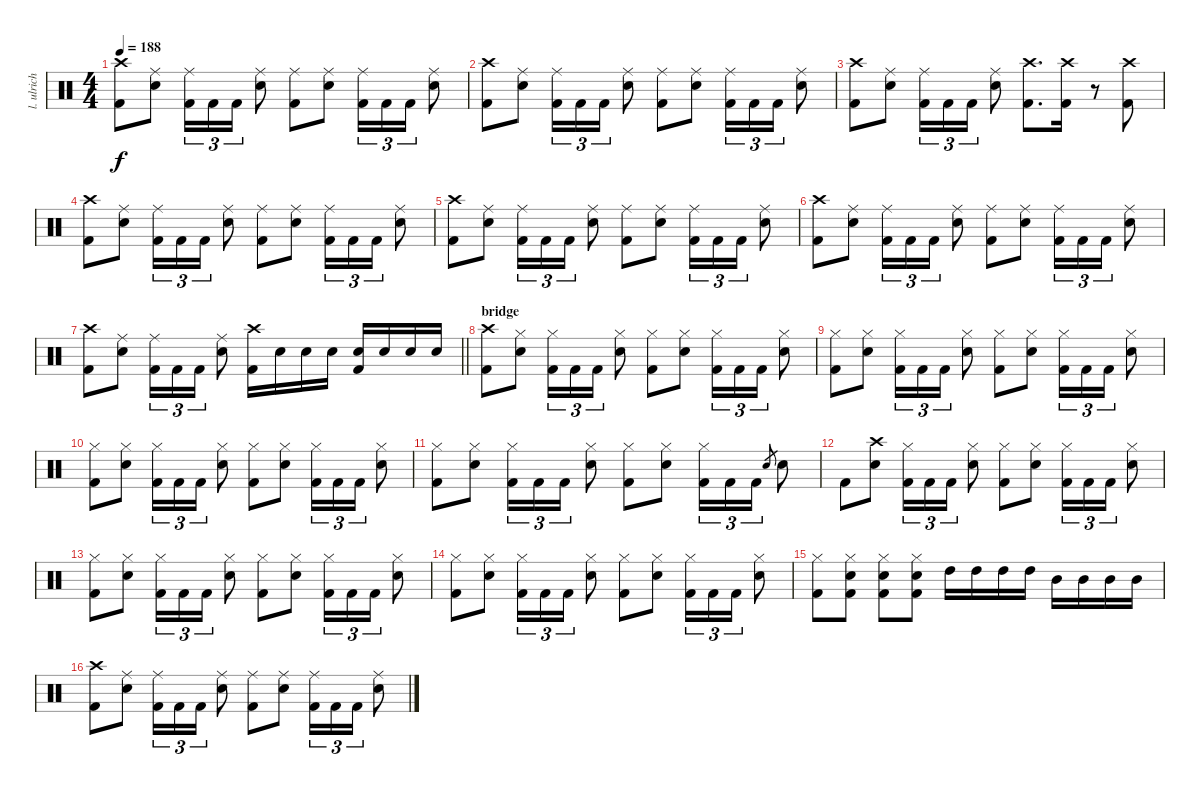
\track ("l. ulrich - drums" "l. ulrich ") {instrument percussion}
\staff {score}
\articulation defaults
\ts (4 4)
\tempo 188
\clef neutral
\ks c
("Crash high (hit)" "Kick (hit) 2").8{dy f} ("Ride (middle)" "Snare (hit) 2").8 ("Ride (middle)" "Kick (hit) 2").16{tu (3 2)} "Kick (hit) 2".16{tu (3 2)} "Kick (hit) 2".16{tu (3 2)} ("Ride (middle)" "Snare (hit) 2").8 ("Ride (middle)" "Kick (hit) 2").8 ("Ride (middle)" "Snare (hit) 2").8 ("Ride (middle)" "Kick (hit) 2").16{tu (3 2)} "Kick (hit) 2".16{tu (3 2)} "Kick (hit) 2".16{tu (3 2)} ("Ride (middle)" "Snare (hit) 2").8 |
("Crash high (hit)" "Kick (hit) 2").8 ("Ride (middle)" "Snare (hit) 2").8 ("Ride (middle)" "Kick (hit) 2").16{tu (3 2)} "Kick (hit) 2".16{tu (3 2)} "Kick (hit) 2".16{tu (3 2)} ("Ride (middle)" "Snare (hit) 2").8 ("Ride (middle)" "Kick (hit) 2").8 ("Ride (middle)" "Snare (hit) 2").8 ("Ride (middle)" "Kick (hit) 2").16{tu (3 2)} "Kick (hit) 2".16{tu (3 2)} "Kick (hit) 2".16{tu (3 2)} ("Ride (middle)" "Snare (hit) 2").8 |
("Crash high (hit)" "Kick (hit) 2").8 ("Ride (middle)" "Snare (hit) 2").8 ("Ride (middle)" "Kick (hit) 2").16{tu (3 2)} "Kick (hit) 2".16{tu (3 2)} "Kick (hit) 2".16{tu (3 2)} ("Ride (middle)" "Snare (hit) 2").8 ("Crash high (hit)" "Kick (hit) 2").8{d} ("Crash high (hit)" "Kick (hit) 2").16 r.8 ("Crash high (hit)" "Kick (hit) 2").8 |
("Crash high (hit)" "Kick (hit) 2").8 ("Ride (middle)" "Snare (hit) 2").8 ("Ride (middle)" "Kick (hit) 2").16{tu (3 2)} "Kick (hit) 2".16{tu (3 2)} "Kick (hit) 2".16{tu (3 2)} ("Ride (middle)" "Snare (hit) 2").8 ("Ride (middle)" "Kick (hit) 2").8 ("Ride (middle)" "Snare (hit) 2").8 ("Ride (middle)" "Kick (hit) 2").16{tu (3 2)} "Kick (hit) 2".16{tu (3 2)} "Kick (hit) 2".16{tu (3 2)} ("Ride (middle)" "Snare (hit) 2").8 |
("Crash high (hit)" "Kick (hit) 2").8 ("Ride (middle)" "Snare (hit) 2").8 ("Ride (middle)" "Kick (hit) 2").16{tu (3 2)} "Kick (hit) 2".16{tu (3 2)} "Kick (hit) 2".16{tu (3 2)} ("Ride (middle)" "Snare (hit) 2").8 ("Ride (middle)" "Kick (hit) 2").8 ("Ride (middle)" "Snare (hit) 2").8 ("Ride (middle)" "Kick (hit) 2").16{tu (3 2)} "Kick (hit) 2".16{tu (3 2)} "Kick (hit) 2".16{tu (3 2)} ("Ride (middle)" "Snare (hit) 2").8 |
("Crash high (hit)" "Kick (hit) 2").8 ("Ride (middle)" "Snare (hit) 2").8 ("Ride (middle)" "Kick (hit) 2").16{tu (3 2)} "Kick (hit) 2".16{tu (3 2)} "Kick (hit) 2".16{tu (3 2)} ("Ride (middle)" "Snare (hit) 2").8 ("Ride (middle)" "Kick (hit) 2").8 ("Ride (middle)" "Snare (hit) 2").8 ("Ride (middle)" "Kick (hit) 2").16{tu (3 2)} "Kick (hit) 2".16{tu (3 2)} "Kick (hit) 2".16{tu (3 2)} ("Ride (middle)" "Snare (hit) 2").8 |
\barLineRight lightlight
("Crash high (hit)" "Kick (hit) 2").8 ("Ride (middle)" "Snare (hit) 2").8 ("Ride (middle)" "Kick (hit) 2").16{tu (3 2)} "Kick (hit) 2".16{tu (3 2)} "Kick (hit) 2".16{tu (3 2)} ("Ride (middle)" "Snare (hit) 2").8 ("Crash high (hit)" "Kick (hit) 2").16 "Snare (hit) 2".16 "Snare (hit) 2".16 "Snare (hit) 2".16 ("Snare (hit) 2" "Kick (hit) 2").16 "Snare (hit) 2".16 "Snare (hit) 2".16 "Snare (hit) 2".16 |
\section ("" "bridge")
("Crash high (hit)" "Kick (hit) 2").8 ("Hi-Hat (closed)" "Snare (hit) 2").8 ("Hi-Hat (closed)" "Kick (hit) 2").16{tu (3 2)} "Kick (hit) 2".16{tu (3 2)} "Kick (hit) 2".16{tu (3 2)} ("Hi-Hat (closed)" "Snare (hit) 2").8 ("Hi-Hat (closed)" "Kick (hit) 2").8 ("Hi-Hat (closed)" "Snare (hit) 2").8 ("Hi-Hat (closed)" "Kick (hit) 2").16{tu (3 2)} "Kick (hit) 2".16{tu (3 2)} "Kick (hit) 2".16{tu (3 2)} ("Hi-Hat (closed)" "Snare (hit) 2").8 |
("Hi-Hat (closed)" "Kick (hit) 2").8 ("Hi-Hat (closed)" "Snare (hit) 2").8 ("Hi-Hat (closed)" "Kick (hit) 2").16{tu (3 2)} "Kick (hit) 2".16{tu (3 2)} "Kick (hit) 2".16{tu (3 2)} ("Hi-Hat (closed)" "Snare (hit) 2").8 ("Hi-Hat (closed)" "Kick (hit) 2").8 ("Hi-Hat (closed)" "Snare (hit) 2").8 ("Hi-Hat (closed)" "Kick (hit) 2").16{tu (3 2)} "Kick (hit) 2".16{tu (3 2)} "Kick (hit) 2".16{tu (3 2)} ("Hi-Hat (closed)" "Snare (hit) 2").8 |
("Hi-Hat (closed)" "Kick (hit) 2").8 ("Hi-Hat (closed)" "Snare (hit) 2").8 ("Hi-Hat (closed)" "Kick (hit) 2").16{tu (3 2)} "Kick (hit) 2".16{tu (3 2)} "Kick (hit) 2".16{tu (3 2)} ("Hi-Hat (closed)" "Snare (hit) 2").8 ("Hi-Hat (closed)" "Kick (hit) 2").8 ("Hi-Hat (closed)" "Snare (hit) 2").8 ("Hi-Hat (closed)" "Kick (hit) 2").16{tu (3 2)} "Kick (hit) 2".16{tu (3 2)} "Kick (hit) 2".16{tu (3 2)} ("Hi-Hat (closed)" "Snare (hit) 2").8 |
("Hi-Hat (closed)" "Kick (hit) 2").8 ("Hi-Hat (closed)" "Snare (hit) 2").8 ("Hi-Hat (closed)" "Kick (hit) 2").16{tu (3 2)} "Kick (hit) 2".16{tu (3 2)} "Kick (hit) 2".16{tu (3 2)} ("Hi-Hat (closed)" "Snare (hit) 2").8 ("Hi-Hat (closed)" "Kick (hit) 2").8 ("Hi-Hat (closed)" "Snare (hit) 2").8 ("Hi-Hat (closed)" "Kick (hit) 2").16{tu (3 2)} "Kick (hit) 2".16{tu (3 2)} "Kick (hit) 2".16{tu (3 2)} "Snare (hit) 2".8{gr} "Snare (hit) 2".8 |
"Kick (hit) 2".8 ("Crash high (hit)" "Snare (hit) 2").8 ("Hi-Hat (closed)" "Kick (hit) 2").16{tu (3 2)} "Kick (hit) 2".16{tu (3 2)} "Kick (hit) 2".16{tu (3 2)} ("Hi-Hat (closed)" "Snare (hit) 2").8 ("Hi-Hat (closed)" "Kick (hit) 2").8 ("Hi-Hat (closed)" "Snare (hit) 2").8 ("Hi-Hat (closed)" "Kick (hit) 2").16{tu (3 2)} "Kick (hit) 2".16{tu (3 2)} "Kick (hit) 2".16{tu (3 2)} ("Hi-Hat (closed)" "Snare (hit) 2").8 |
("Hi-Hat (closed)" "Kick (hit) 2").8 ("Hi-Hat (closed)" "Snare (hit) 2").8 ("Hi-Hat (closed)" "Kick (hit) 2").16{tu (3 2)} "Kick (hit) 2".16{tu (3 2)} "Kick (hit) 2".16{tu (3 2)} ("Hi-Hat (closed)" "Snare (hit) 2").8 ("Hi-Hat (closed)" "Kick (hit) 2").8 ("Hi-Hat (closed)" "Snare (hit) 2").8 ("Hi-Hat (closed)" "Kick (hit) 2").16{tu (3 2)} "Kick (hit) 2".16{tu (3 2)} "Kick (hit) 2".16{tu (3 2)} ("Hi-Hat (closed)" "Snare (hit) 2").8 |
("Hi-Hat (closed)" "Kick (hit) 2").8 ("Hi-Hat (closed)" "Snare (hit) 2").8 ("Hi-Hat (closed)" "Kick (hit) 2").16{tu (3 2)} "Kick (hit) 2".16{tu (3 2)} "Kick (hit) 2".16{tu (3 2)} ("Hi-Hat (closed)" "Snare (hit) 2").8 ("Hi-Hat (closed)" "Kick (hit) 2").8 ("Hi-Hat (closed)" "Snare (hit) 2").8 ("Hi-Hat (closed)" "Kick (hit) 2").16{tu (3 2)} "Kick (hit) 2".16{tu (3 2)} "Kick (hit) 2".16{tu (3 2)} ("Hi-Hat (closed)" "Snare (hit) 2").8 |
("Hi-Hat (closed)" "Kick (hit) 2").8 ("Hi-Hat (closed)" "Snare (hit) 2" "Kick (hit) 2").8 ("Hi-Hat (closed)" "Snare (hit) 2" "Kick (hit) 2").8 ("Hi-Hat (closed)" "Snare (hit) 2" "Kick (hit) 2").8 "High Tom (hit)".16 "High Tom (hit)".16 "High Tom (hit)".16 "High Tom (hit)".16 "Mid Tom (hit)".16 "Mid Tom (hit)".16 "Mid Tom (hit)".16 "Mid Tom (hit)".16 |
("Crash high (hit)" "Kick (hit) 2").8 ("Ride (middle)" "Snare (hit) 2").8 ("Ride (middle)" "Kick (hit) 2").16{tu (3 2)} "Kick (hit) 2".16{tu (3 2)} "Kick (hit) 2".16{tu (3 2)} ("Ride (middle)" "Snare (hit) 2").8 ("Ride (middle)" "Kick (hit) 2").8 ("Ride (middle)" "Snare (hit) 2").8 ("Ride (middle)" "Kick (hit) 2").16{tu (3 2)} "Kick (hit) 2".16{tu (3 2)} "Kick (hit) 2".16{tu (3 2)} ("Ride (middle)" "Snare (hit) 2").8
